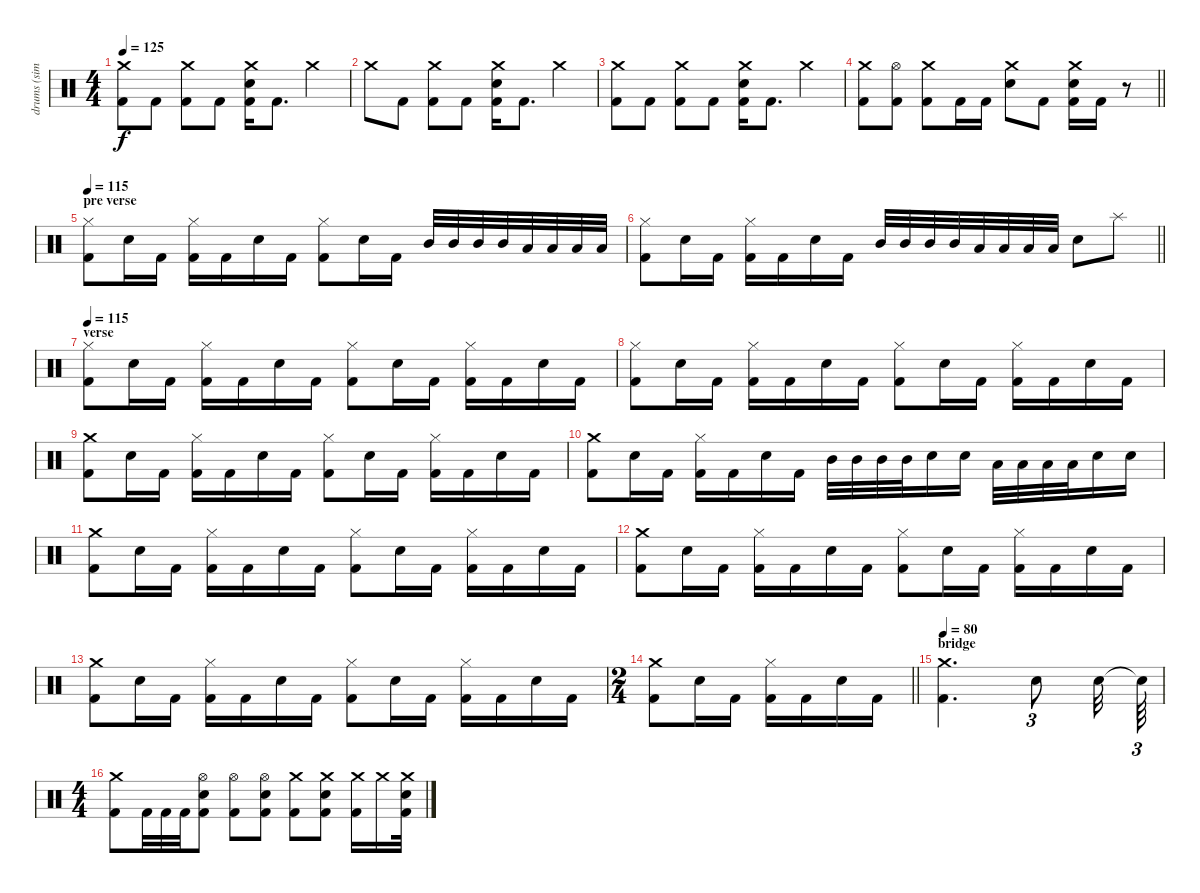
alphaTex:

\track ("drums (simple)" "drums (sim") {instrument percussion}
\staff {score}
\articulation defaults
\ts (4 4)
\tempo 125
\clef neutral
\ks c
("Crash medium (hit)" "Kick (hit) 2").8{dy f} "Kick (hit) 2".8 ("Crash medium (hit)" "Kick (hit) 2").8 "Kick (hit) 2".8 ("Crash medium (hit)" "Electric Snare (hit)" "Kick (hit) 2").16 "Kick (hit) 2".8{d} "Crash medium (hit)".4 |
"Crash medium (hit)".8 "Kick (hit) 2".8 ("Crash medium (hit)" "Kick (hit) 2").8 "Kick (hit) 2".8 ("Crash medium (hit)" "Electric Snare (hit)" "Kick (hit) 2").16 "Kick (hit) 2".8{d} "Crash medium (hit)".4 |
("Crash medium (hit)" "Kick (hit) 2").8 "Kick (hit) 2".8 ("Crash medium (hit)" "Kick (hit) 2").8 "Kick (hit) 2".8 ("Crash medium (hit)" "Electric Snare (hit)" "Kick (hit) 2").16 "Kick (hit) 2".8{d} "Crash medium (hit)".4 |
\barLineRight lightlight
("Crash medium (hit)" "Kick (hit) 2").8 ("Hi-Hat (open)" "Kick (hit) 2").8 ("Crash medium (hit)" "Kick (hit) 2").8 "Kick (hit) 2".16 "Kick (hit) 2".16 ("Crash medium (hit)" "Electric Snare (hit)").8 "Kick (hit) 2".8 ("Crash medium (hit)" "Electric Snare (hit)" "Kick (hit) 2").16 "Kick (hit) 2".16 r.8 |
\section ("" "pre verse")
\tempo 115
("Hi-Hat (closed)" "Kick (hit) 2").8 "Electric Snare (hit)".16 "Kick (hit) 2".16 ("Hi-Hat (closed)" "Kick (hit) 2").16 "Kick (hit) 2".16 "Electric Snare (hit)".16 "Kick (hit) 2".16 ("Hi-Hat (closed)" "Kick (hit) 2").8 "Electric Snare (hit)".16 "Kick (hit) 2".16 "Mid Tom (hit)".32 "Mid Tom (hit)".32 "Mid Tom (hit)".32 "Mid Tom (hit)".32 "Low Tom (hit)".32 "Low Tom (hit)".32 "Low Tom (hit)".32 "Low Tom (hit)".32 |
\barLineRight lightlight
("Hi-Hat (closed)" "Kick (hit) 2").8 "Electric Snare (hit)".16 "Kick (hit) 2".16 ("Hi-Hat (closed)" "Kick (hit) 2").16 "Kick (hit) 2".16 "Electric Snare (hit)".16 "Kick (hit) 2".16 "Mid Tom (hit)".32 "Mid Tom (hit)".32 "Mid Tom (hit)".32 "Mid Tom (hit)".32 "Low Tom (hit)".32 "Low Tom (hit)".32 "Low Tom (hit)".32 "Low Tom (hit)".32 "Electric Snare (hit)".8 "Splash (hit)".8 |
\section ("" "verse")
\tempo 115
("Hi-Hat (closed)" "Kick (hit) 2").8{volume 12} "Electric Snare (hit)".16 "Kick (hit) 2".16 ("Hi-Hat (closed)" "Kick (hit) 2").16 "Kick (hit) 2".16 "Electric Snare (hit)".16 "Kick (hit) 2".16 ("Hi-Hat (closed)" "Kick (hit) 2").8 "Electric Snare (hit)".16 "Kick (hit) 2".16 ("Hi-Hat (closed)" "Kick (hit) 2").16 "Kick (hit) 2".16 "Electric Snare (hit)".16 "Kick (hit) 2".16 |
("Hi-Hat (closed)" "Kick (hit) 2").8{volume 12} "Electric Snare (hit)".16 "Kick (hit) 2".16 ("Hi-Hat (closed)" "Kick (hit) 2").16 "Kick (hit) 2".16 "Electric Snare (hit)".16 "Kick (hit) 2".16 ("Hi-Hat (closed)" "Kick (hit) 2").8 "Electric Snare (hit)".16 "Kick (hit) 2".16 ("Hi-Hat (closed)" "Kick (hit) 2").16 "Kick (hit) 2".16 "Electric Snare (hit)".16 "Kick (hit) 2".16 |
("Crash medium (hit)" "Kick (hit) 2").8{volume 12} "Electric Snare (hit)".16 "Kick (hit) 2".16 ("Hi-Hat (closed)" "Kick (hit) 2").16 "Kick (hit) 2".16 "Electric Snare (hit)".16 "Kick (hit) 2".16 ("Hi-Hat (closed)" "Kick (hit) 2").8 "Electric Snare (hit)".16 "Kick (hit) 2".16 ("Hi-Hat (closed)" "Kick (hit) 2").16 "Kick (hit) 2".16 "Electric Snare (hit)".16 "Kick (hit) 2".16 |
("Crash medium (hit)" "Kick (hit) 2").8{volume 12} "Electric Snare (hit)".16 "Kick (hit) 2".16 ("Hi-Hat (closed)" "Kick (hit) 2").16 "Kick (hit) 2".16 "Electric Snare (hit)".16 "Kick (hit) 2".16 "Mid Tom (hit)".32 "Mid Tom (hit)".32 "Mid Tom (hit)".32 "Mid Tom (hit)".32 "Electric Snare (hit)".16 "Electric Snare (hit)".16 "Low Tom (hit)".32 "Low Tom (hit)".32 "Low Tom (hit)".32 "Low Tom (hit)".32 "Electric Snare (hit)".16 "Electric Snare (hit)".16 |
("Crash medium (hit)" "Kick (hit) 2").8{volume 12} "Electric Snare (hit)".16 "Kick (hit) 2".16 ("Hi-Hat (closed)" "Kick (hit) 2").16 "Kick (hit) 2".16 "Electric Snare (hit)".16 "Kick (hit) 2".16 ("Hi-Hat (closed)" "Kick (hit) 2").8 "Electric Snare (hit)".16 "Kick (hit) 2".16 ("Hi-Hat (closed)" "Kick (hit) 2").16 "Kick (hit) 2".16 "Electric Snare (hit)".16 "Kick (hit) 2".16 |
("Crash medium (hit)" "Kick (hit) 2").8{volume 12} "Electric Snare (hit)".16 "Kick (hit) 2".16 ("Hi-Hat (closed)" "Kick (hit) 2").16 "Kick (hit) 2".16 "Electric Snare (hit)".16 "Kick (hit) 2".16 ("Hi-Hat (closed)" "Kick (hit) 2").8 "Electric Snare (hit)".16 "Kick (hit) 2".16 ("Hi-Hat (closed)" "Kick (hit) 2").16 "Kick (hit) 2".16 "Electric Snare (hit)".16 "Kick (hit) 2".16 |
("Crash medium (hit)" "Kick (hit) 2").8{volume 12} "Electric Snare (hit)".16 "Kick (hit) 2".16 ("Hi-Hat (closed)" "Kick (hit) 2").16 "Kick (hit) 2".16 "Electric Snare (hit)".16 "Kick (hit) 2".16 ("Hi-Hat (closed)" "Kick (hit) 2").8 "Electric Snare (hit)".16 "Kick (hit) 2".16 ("Hi-Hat (closed)" "Kick (hit) 2").16 "Kick (hit) 2".16 "Electric Snare (hit)".16 "Kick (hit) 2".16 |
\ts (2 4)
\barLineRight lightlight
("Crash medium (hit)" "Kick (hit) 2").8{volume 12} "Electric Snare (hit)".16 "Kick (hit) 2".16 ("Hi-Hat (closed)" "Kick (hit) 2").16 "Kick (hit) 2".16 "Electric Snare (hit)".16 "Kick (hit) 2".16 |
\section ("" "bridge")
\tempo 80
("Crash medium (hit)" "Kick (hit) 2").4{d} "Electric Snare (hit)".8{tu (3 2)} "Electric Snare (hit)".32 "Snare (hit)"{t}.64{tu (3 2)} |
\ts (4 4)
("Crash medium (hit)" "Kick (hit) 2").8 "Kick (hit) 2".32 "Kick (hit) 2".32 "Kick (hit) 2".32 ("Hi-Hat (open)" "Electric Snare (hit)" "Kick (hit) 2").8 ("Hi-Hat (open)" "Kick (hit) 2").8 ("Hi-Hat (open)" "Electric Snare (hit)" "Kick (hit) 2").8 ("Crash medium (hit)" "Kick (hit) 2").8 ("Crash medium (hit)" "Electric Snare (hit)" "Kick (hit) 2").8 ("Crash medium (hit)" "Kick (hit) 2").16 "Crash medium (hit)".16 ("Crash medium (hit)" "Electric Snare (hit)" "Kick (hit) 2").32
